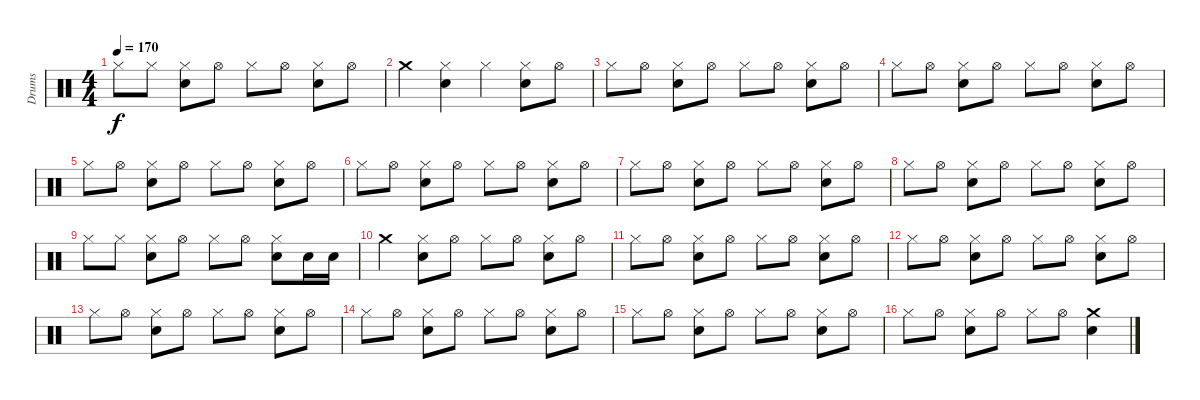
\track ("Drums" "Drums") {instrument percussion}
\staff {score}
\articulation defaults
\ts (4 4)
\tempo 170
\clef neutral
\ks c "Hi-Hat (closed)".8{dy f} "Hi-Hat (closed)".8
("Electric Snare (hit)" "Hi-Hat (closed)").8 "Hi-Hat (open)".8 "Hi-Hat (closed)".8 "Hi-Hat (open)".8 ("Electric Snare (hit)" "Hi-Hat (closed)").8 "Hi-Hat (open)".8 |
"Crash medium (hit)".4 ("Electric Snare (hit)" "Hi-Hat (closed)").4 "Hi-Hat (closed)".4 ("Electric Snare (hit)" "Hi-Hat (closed)").8 "Hi-Hat (open)".8 |
"Hi-Hat (closed)".8 "Hi-Hat (open)".8 ("Electric Snare (hit)" "Hi-Hat (closed)").8 "Hi-Hat (open)".8 "Hi-Hat (closed)".8 "Hi-Hat (open)".8 ("Electric Snare (hit)" "Hi-Hat (closed)").8 "Hi-Hat (open)".8 |
"Hi-Hat (closed)".8 "Hi-Hat (open)".8 ("Electric Snare (hit)" "Hi-Hat (closed)").8 "Hi-Hat (open)".8 "Hi-Hat (closed)".8 "Hi-Hat (open)".8 ("Electric Snare (hit)" "Hi-Hat (closed)").8 "Hi-Hat (open)".8 |
"Hi-Hat (closed)".8 "Hi-Hat (open)".8 ("Electric Snare (hit)" "Hi-Hat (closed)").8 "Hi-Hat (open)".8 "Hi-Hat (closed)".8 "Hi-Hat (open)".8 ("Electric Snare (hit)" "Hi-Hat (closed)").8 "Hi-Hat (open)".8 |
"Hi-Hat (closed)".8 "Hi-Hat (open)".8 ("Electric Snare (hit)" "Hi-Hat (closed)").8 "Hi-Hat (open)".8 "Hi-Hat (closed)".8 "Hi-Hat (open)".8 ("Electric Snare (hit)" "Hi-Hat (closed)").8 "Hi-Hat (open)".8 |
"Hi-Hat (closed)".8 "Hi-Hat (open)".8 ("Electric Snare (hit)" "Hi-Hat (closed)").8 "Hi-Hat (open)".8 "Hi-Hat (closed)".8 "Hi-Hat (open)".8 ("Electric Snare (hit)" "Hi-Hat (closed)").8 "Hi-Hat (open)".8 |
"Hi-Hat (closed)".8 "Hi-Hat (open)".8 ("Electric Snare (hit)" "Hi-Hat (closed)").8 "Hi-Hat (open)".8 "Hi-Hat (closed)".8 "Hi-Hat (open)".8 ("Electric Snare (hit)" "Hi-Hat (closed)").8 "Hi-Hat (open)".8 |
"Hi-Hat (closed)".8 "Hi-Hat (closed)".8 ("Electric Snare (hit)" "Hi-Hat (closed)").8 "Hi-Hat (open)".8 "Hi-Hat (closed)".8 "Hi-Hat (open)".8 ("Electric Snare (hit)" "Hi-Hat (closed)").8 "Electric Snare (hit)".16 "Electric Snare (hit)".16 |
"Crash medium (hit)".4 ("Electric Snare (hit)" "Hi-Hat (closed)").8 "Hi-Hat (open)".8 "Hi-Hat (closed)".8 "Hi-Hat (open)".8 ("Electric Snare (hit)" "Hi-Hat (closed)").8 "Hi-Hat (open)".8 |
"Hi-Hat (closed)".8 "Hi-Hat (open)".8 ("Electric Snare (hit)" "Hi-Hat (closed)").8 "Hi-Hat (open)".8 "Hi-Hat (closed)".8 "Hi-Hat (open)".8 ("Electric Snare (hit)" "Hi-Hat (closed)").8 "Hi-Hat (open)".8 |
"Hi-Hat (closed)".8 "Hi-Hat (open)".8 ("Electric Snare (hit)" "Hi-Hat (closed)").8 "Hi-Hat (open)".8 "Hi-Hat (closed)".8 "Hi-Hat (open)".8 ("Electric Snare (hit)" "Hi-Hat (closed)").8 "Hi-Hat (open)".8 |
"Hi-Hat (closed)".8 "Hi-Hat (open)".8 ("Electric Snare (hit)" "Hi-Hat (closed)").8 "Hi-Hat (open)".8 "Hi-Hat (closed)".8 "Hi-Hat (open)".8 ("Electric Snare (hit)" "Hi-Hat (closed)").8 "Hi-Hat (open)".8 |
"Hi-Hat (closed)".8 "Hi-Hat (open)".8 ("Electric Snare (hit)" "Hi-Hat (closed)").8 "Hi-Hat (open)".8 "Hi-Hat (closed)".8 "Hi-Hat (open)".8 ("Electric Snare (hit)" "Hi-Hat (closed)").8 "Hi-Hat (open)".8 |
"Hi-Hat (closed)".8 "Hi-Hat (open)".8 ("Electric Snare (hit)" "Hi-Hat (closed)").8 "Hi-Hat (open)".8 "Hi-Hat (closed)".8 "Hi-Hat (open)".8 ("Electric Snare (hit)" "Hi-Hat (closed)").8 "Hi-Hat (open)".8 |
"Hi-Hat (closed)".8 "Hi-Hat (open)".8 ("Electric Snare (hit)" "Hi-Hat (closed)").8 "Hi-Hat (open)".8 "Hi-Hat (closed)".8 "Hi-Hat (open)".8 ("Electric Snare (hit)" "Crash medium (hit)").4
